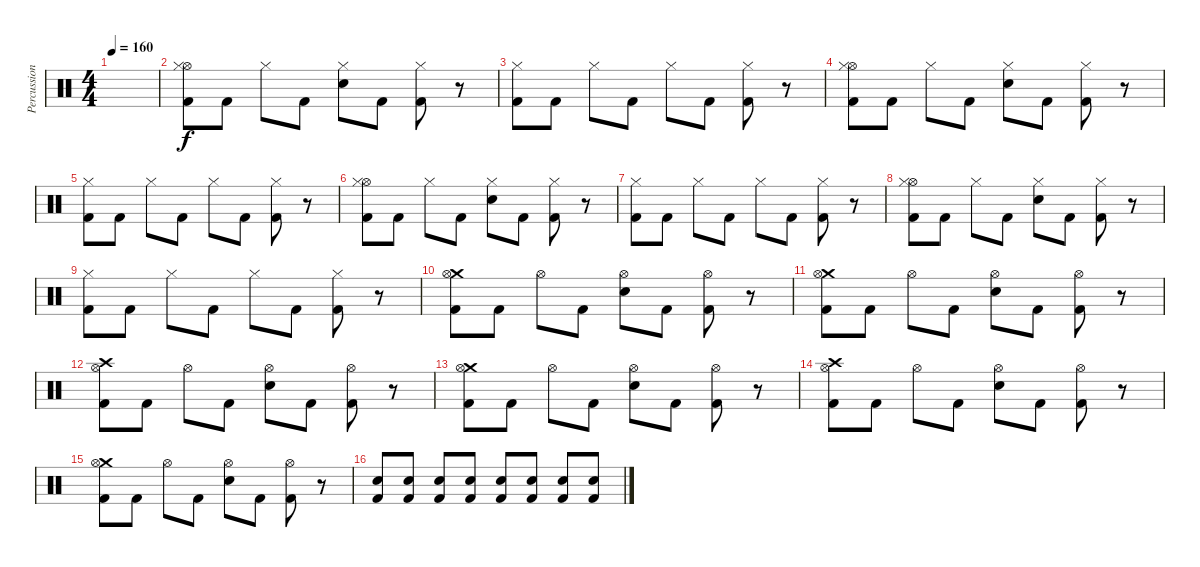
\track ("Percussioni" "Percussion") {instrument percussion}
\staff {score}
\articulation defaults
\ts (4 4)
\tempo 160
\clef neutral
\ks c
|
("Hi-Hat (open)" "Hi-Hat (closed)" "Kick (hit) 2").8 "Kick (hit) 2".8 "Hi-Hat (closed)".8 "Kick (hit) 2".8 ("Hi-Hat (closed)" "Snare (hit) 2").8 "Kick (hit) 2".8 ("Hi-Hat (closed)" "Kick (hit) 2").8 r.8 |
("Hi-Hat (closed)" "Kick (hit) 2").8 "Kick (hit) 2".8 "Hi-Hat (closed)".8 "Kick (hit) 2".8 "Hi-Hat (closed)".8 "Kick (hit) 2".8 ("Hi-Hat (closed)" "Kick (hit) 2").8 r.8 |
("Hi-Hat (open)" "Hi-Hat (closed)" "Kick (hit) 2").8 "Kick (hit) 2".8 "Hi-Hat (closed)".8 "Kick (hit) 2".8 ("Hi-Hat (closed)" "Snare (hit) 2").8 "Kick (hit) 2".8 ("Hi-Hat (closed)" "Kick (hit) 2").8 r.8 |
("Hi-Hat (closed)" "Kick (hit) 2").8 "Kick (hit) 2".8 "Hi-Hat (closed)".8 "Kick (hit) 2".8 "Hi-Hat (closed)".8 "Kick (hit) 2".8 ("Hi-Hat (closed)" "Kick (hit) 2").8 r.8 |
("Hi-Hat (open)" "Hi-Hat (closed)" "Kick (hit) 2").8 "Kick (hit) 2".8 "Hi-Hat (closed)".8 "Kick (hit) 2".8 ("Hi-Hat (closed)" "Snare (hit) 2").8 "Kick (hit) 2".8 ("Hi-Hat (closed)" "Kick (hit) 2").8 r.8 |
("Hi-Hat (closed)" "Kick (hit) 2").8 "Kick (hit) 2".8 "Hi-Hat (closed)".8 "Kick (hit) 2".8 "Hi-Hat (closed)".8 "Kick (hit) 2".8 ("Hi-Hat (closed)" "Kick (hit) 2").8 r.8 |
("Hi-Hat (open)" "Hi-Hat (closed)" "Kick (hit) 2").8 "Kick (hit) 2".8 "Hi-Hat (closed)".8 "Kick (hit) 2".8 ("Hi-Hat (closed)" "Snare (hit) 2").8 "Kick (hit) 2".8 ("Hi-Hat (closed)" "Kick (hit) 2").8 r.8 |
("Hi-Hat (closed)" "Kick (hit) 2").8 "Kick (hit) 2".8 "Hi-Hat (closed)".8 "Kick (hit) 2".8 "Hi-Hat (closed)".8 "Kick (hit) 2".8 ("Hi-Hat (closed)" "Kick (hit) 2").8 r.8 |
("Crash medium (hit)" "Hi-Hat (open)" "Kick (hit) 2").8 "Kick (hit) 2".8 "Hi-Hat (open)".8 "Kick (hit) 2".8 ("Hi-Hat (open)" "Snare (hit) 2").8 "Kick (hit) 2".8 ("Hi-Hat (open)" "Kick (hit) 2").8 r.8 |
("Crash medium (hit)" "Hi-Hat (open)" "Kick (hit) 2").8 "Kick (hit) 2".8 "Hi-Hat (open)".8 "Kick (hit) 2".8 ("Hi-Hat (open)" "Snare (hit) 2").8 "Kick (hit) 2".8 ("Hi-Hat (open)" "Kick (hit) 2").8 r.8 |
("Crash high (hit)" "Hi-Hat (open)" "Kick (hit) 2").8 "Kick (hit) 2".8 "Hi-Hat (open)".8 "Kick (hit) 2".8 ("Hi-Hat (open)" "Snare (hit) 2").8 "Kick (hit) 2".8 ("Hi-Hat (open)" "Kick (hit) 2").8 r.8 |
("Crash medium (hit)" "Hi-Hat (open)" "Kick (hit) 2").8 "Kick (hit) 2".8 "Hi-Hat (open)".8 "Kick (hit) 2".8 ("Hi-Hat (open)" "Snare (hit) 2").8 "Kick (hit) 2".8 ("Hi-Hat (open)" "Kick (hit) 2").8 r.8 |
("Crash high (hit)" "Hi-Hat (open)" "Kick (hit) 2").8 "Kick (hit) 2".8 "Hi-Hat (open)".8 "Kick (hit) 2".8 ("Hi-Hat (open)" "Snare (hit) 2").8 "Kick (hit) 2".8 ("Hi-Hat (open)" "Kick (hit) 2").8 r.8 |
("Crash medium (hit)" "Hi-Hat (open)" "Kick (hit) 2").8 "Kick (hit) 2".8 "Hi-Hat (open)".8 "Kick (hit) 2".8 ("Hi-Hat (open)" "Snare (hit) 2").8 "Kick (hit) 2".8 ("Hi-Hat (open)" "Kick (hit) 2").8 r.8 |
("Snare (hit) 2" "Kick (hit) 2").8 ("Snare (hit) 2" "Kick (hit) 2").8 ("Snare (hit) 2" "Kick (hit) 2").8 ("Snare (hit) 2" "Kick (hit) 2").8 ("Snare (hit) 2" "Kick (hit) 2").8 ("Snare (hit) 2" "Kick (hit) 2").8 ("Snare (hit) 2" "Kick (hit) 2").8 ("Snare (hit) 2" "Kick (hit) 2").8
